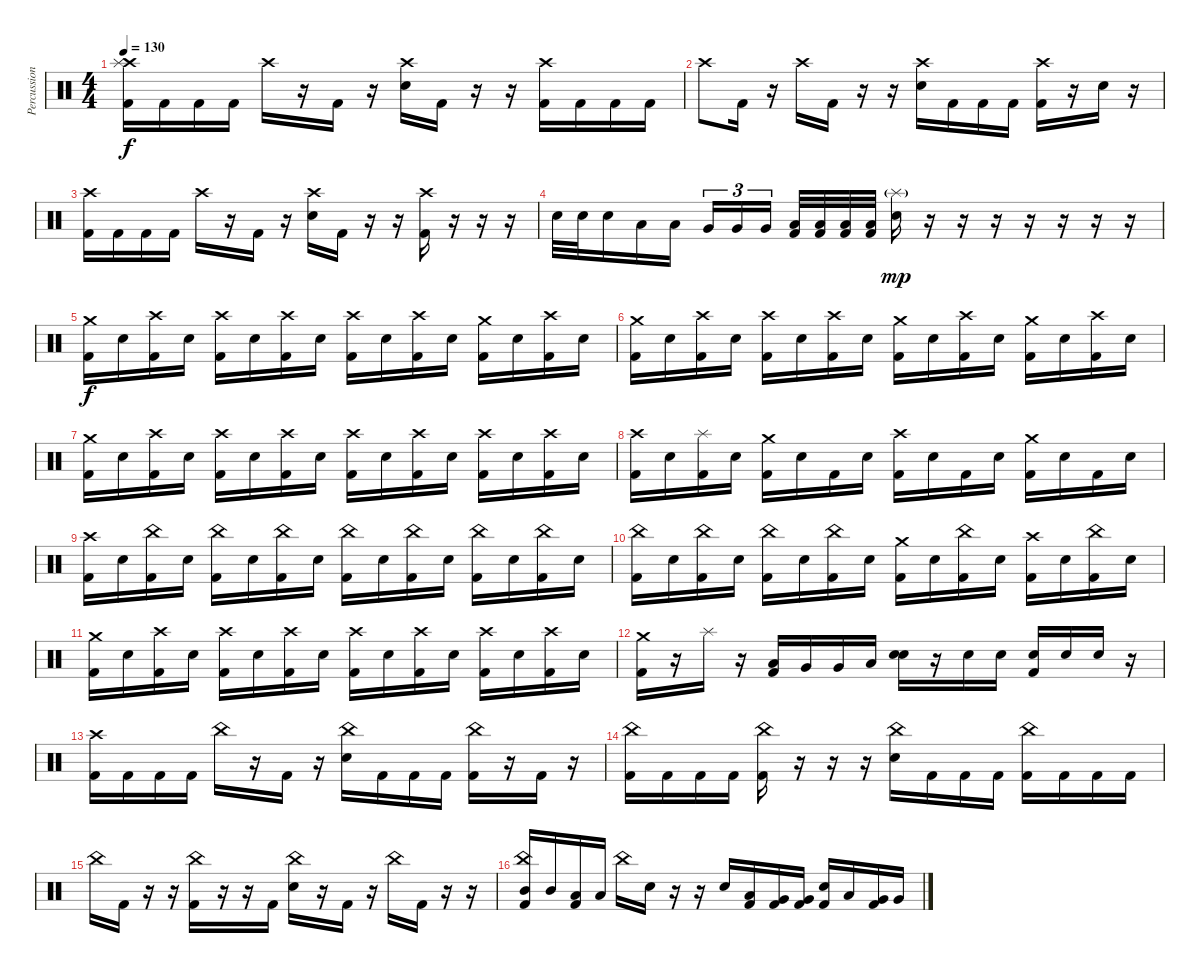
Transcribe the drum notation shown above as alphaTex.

\track ("Percussion" "Percussion") {instrument percussion}
\staff {score}
\articulation defaults
\ts (4 4)
\tempo 130
\clef neutral
\ks c
("Crash high (hit)" "Splash (hit)" "Kick (hit) 2").16{dy f} "Kick (hit) 2".16 "Kick (hit) 2".16 "Kick (hit) 2".16 "Crash high (hit)".16 r.16 "Kick (hit) 2".16 r.16 ("Crash high (hit)" "Electric Snare (hit)").16 "Kick (hit) 2".16 r.16 r.16 ("Crash high (hit)" "Kick (hit) 2").16 "Kick (hit) 2".16 "Kick (hit) 2".16 "Kick (hit) 2".16 |
"Crash high (hit)".8 "Kick (hit) 2".16 r.16 "Crash high (hit)".16 "Kick (hit) 2".16 r.16 r.16 ("Crash high (hit)" "Electric Snare (hit)").16 "Kick (hit) 2".16 "Kick (hit) 2".16 "Kick (hit) 2".16 ("Crash high (hit)" "Kick (hit) 2").16 r.16 "Electric Snare (hit)".16 r.16 |
("Crash high (hit)" "Kick (hit) 2").16 "Kick (hit) 2".16 "Kick (hit) 2".16 "Kick (hit) 2".16 "Crash high (hit)".16 r.16 "Kick (hit) 2".16 r.16 ("Crash high (hit)" "Electric Snare (hit)").16 "Kick (hit) 2".16 r.16 r.16 ("Crash high (hit)" "Kick (hit) 2").16 r.16 r.16 r.16 |
"Electric Snare (hit)".32 "Electric Snare (hit)".32 "Electric Snare (hit)".16 "Low Tom (hit)".16 "Low Tom (hit)".16 "Very Low Tom (hit)".16{tu (3 2)} "Very Low Tom (hit)".16{tu (3 2)} "Very Low Tom (hit)".16{tu (3 2) beam splitsecondary} ("Low Tom (hit)" "Kick (hit) 2").32 ("Low Tom (hit)" "Kick (hit) 2").32 ("Low Tom (hit)" "Kick (hit) 2").32 ("Low Tom (hit)" "Kick (hit) 2").32 ("Splash (hit)"{g} "Electric Snare (hit)").16{dy mp} r.16{volume 0} r.16 r.16 r.16 r.16 r.16 r.16 |
("Crash medium (hit)" "Kick (hit) 2").16{dy f volume 14} "Electric Snare (hit)".16 ("Crash high (hit)" "Kick (hit) 2").16 "Electric Snare (hit)".16 ("Crash high (hit)" "Kick (hit) 2").16 "Electric Snare (hit)".16 ("Crash high (hit)" "Kick (hit) 2").16 "Electric Snare (hit)".16 ("Crash high (hit)" "Kick (hit) 2").16 "Electric Snare (hit)".16 ("Crash high (hit)" "Kick (hit) 2").16 "Electric Snare (hit)".16 ("Crash medium (hit)" "Kick (hit) 2").16 "Electric Snare (hit)".16 ("Crash high (hit)" "Kick (hit) 2").16 "Electric Snare (hit)".16 |
("Crash medium (hit)" "Kick (hit) 2").16 "Electric Snare (hit)".16 ("Crash high (hit)" "Kick (hit) 2").16 "Electric Snare (hit)".16 ("Crash high (hit)" "Kick (hit) 2").16 "Electric Snare (hit)".16 ("Crash high (hit)" "Kick (hit) 2").16 "Electric Snare (hit)".16 ("Crash medium (hit)" "Kick (hit) 2").16 "Electric Snare (hit)".16 ("Crash high (hit)" "Kick (hit) 2").16 "Electric Snare (hit)".16 ("Crash medium (hit)" "Kick (hit) 2").16 "Electric Snare (hit)".16 ("Crash high (hit)" "Kick (hit) 2").16 "Electric Snare (hit)".16 |
("Crash medium (hit)" "Kick (hit) 2").16 "Electric Snare (hit)".16 ("Crash high (hit)" "Kick (hit) 2").16 "Electric Snare (hit)".16 ("Crash high (hit)" "Kick (hit) 2").16 "Electric Snare (hit)".16 ("Crash high (hit)" "Kick (hit) 2").16 "Electric Snare (hit)".16 ("Crash high (hit)" "Kick (hit) 2").16 "Electric Snare (hit)".16 ("Crash high (hit)" "Kick (hit) 2").16 "Electric Snare (hit)".16 ("Crash high (hit)" "Kick (hit) 2").16 "Electric Snare (hit)".16 ("Crash high (hit)" "Kick (hit) 2").16 "Electric Snare (hit)".16 |
("Crash high (hit)" "Kick (hit) 2").16 "Electric Snare (hit)".16 ("Splash (hit)" "Kick (hit) 2").16 "Electric Snare (hit)".16 ("Crash medium (hit)" "Kick (hit) 2").16 "Electric Snare (hit)".16 "Kick (hit) 2".16 "Electric Snare (hit)".16 ("Crash high (hit)" "Kick (hit) 2").16 "Electric Snare (hit)".16 "Kick (hit) 2".16 "Electric Snare (hit)".16 ("Crash medium (hit)" "Kick (hit) 2").16 "Electric Snare (hit)".16 "Kick (hit) 2".16 "Electric Snare (hit)".16 |
("Crash high (hit)" "Kick (hit) 2").16 "Electric Snare (hit)".16 ("China (hit)" "Kick (hit) 2").16 "Electric Snare (hit)".16 ("China (hit)" "Kick (hit) 2").16 "Electric Snare (hit)".16 ("China (hit)" "Kick (hit) 2").16 "Electric Snare (hit)".16 ("China (hit)" "Kick (hit) 2").16 "Electric Snare (hit)".16 ("China (hit)" "Kick (hit) 2").16 "Electric Snare (hit)".16 ("China (hit)" "Kick (hit) 2").16 "Electric Snare (hit)".16 ("China (hit)" "Kick (hit) 2").16 "Electric Snare (hit)".16 |
("China (hit)" "Kick (hit) 2").16 "Electric Snare (hit)".16 ("China (hit)" "Kick (hit) 2").16 "Electric Snare (hit)".16 ("China (hit)" "Kick (hit) 2").16 "Electric Snare (hit)".16 ("China (hit)" "Kick (hit) 2").16 "Electric Snare (hit)".16 ("Crash medium (hit)" "Kick (hit) 2").16 "Electric Snare (hit)".16 ("China (hit)" "Kick (hit) 2").16 "Electric Snare (hit)".16 ("Crash high (hit)" "Kick (hit) 2").16 "Electric Snare (hit)".16 ("China (hit)" "Kick (hit) 2").16 "Electric Snare (hit)".16 |
("Crash medium (hit)" "Kick (hit) 2").16 "Electric Snare (hit)".16 ("Crash high (hit)" "Kick (hit) 2").16 "Electric Snare (hit)".16 ("Crash high (hit)" "Kick (hit) 2").16 "Electric Snare (hit)".16 ("Crash high (hit)" "Kick (hit) 2").16 "Electric Snare (hit)".16 ("Crash high (hit)" "Kick (hit) 2").16 "Electric Snare (hit)".16 ("Crash high (hit)" "Kick (hit) 2").16 "Electric Snare (hit)".16 ("Crash high (hit)" "Kick (hit) 2").16 "Electric Snare (hit)".16 ("Crash high (hit)" "Kick (hit) 2").16 "Electric Snare (hit)".16 |
("Crash medium (hit)" "Kick (hit) 2").16 r.16 "Splash (hit)".16 r.16 ("Low Tom (hit)" "Kick (hit) 2").16 "Very Low Tom (hit)".16 "Very Low Tom (hit)".16 "Low Floor Tom (hit)".16 ("Electric Snare (hit)" "Snare (hit) 2").16 r.16 "Electric Snare (hit)".16 "Electric Snare (hit)".16 ("Electric Snare (hit)" "Kick (hit) 2").16 "Electric Snare (hit)".16 "Electric Snare (hit)".16 r.16 |
("Crash high (hit)" "Kick (hit) 2").16 "Kick (hit) 2".16 "Kick (hit) 2".16 "Kick (hit) 2".16 "China (hit)".16 r.16 "Kick (hit) 2".16 r.16 ("China (hit)" "Electric Snare (hit)").16 "Kick (hit) 2".16 "Kick (hit) 2".16 "Kick (hit) 2".16 ("China (hit)" "Kick (hit) 2").16 r.16 "Kick (hit) 2".16 r.16 |
("China (hit)" "Kick (hit) 2").16 "Kick (hit) 2".16 "Kick (hit) 2".16 "Kick (hit) 2".16 ("China (hit)" "Kick (hit) 2").16 r.16 r.16 r.16 ("China (hit)" "Electric Snare (hit)").16 "Kick (hit) 2".16 "Kick (hit) 2".16 "Kick (hit) 2".16 ("China (hit)" "Kick (hit) 2").16 "Kick (hit) 2".16 "Kick (hit) 2".16 "Kick (hit) 2".16 |
"China (hit)".16 "Kick (hit) 2".16 r.16 r.16 ("China (hit)" "Kick (hit) 2").16 r.16 r.16 "Kick (hit) 2".16 ("China (hit)" "Electric Snare (hit)").16 r.16 "Kick (hit) 2".16 r.16 "China (hit)".16 "Kick (hit) 2".16 r.16 r.16 |
("China (hit)" "Mid Tom (hit)" "Kick (hit) 2").16 "Mid Tom (hit)".16 ("Low Tom (hit)" "Kick (hit) 2").16 "Low Tom (hit)".16 "China (hit)".16 "Electric Snare (hit)".16 r.16 r.16 "Electric Snare (hit)".16 ("Low Tom (hit)" "Kick (hit) 2").16 ("Very Low Tom (hit)" "Kick (hit) 2").16 ("Very Low Tom (hit)" "Kick (hit) 2").16 ("Electric Snare (hit)" "Kick (hit) 2").16 "Low Tom (hit)".16 ("Very Low Tom (hit)" "Kick (hit) 2").16 "Very Low Tom (hit)".16
